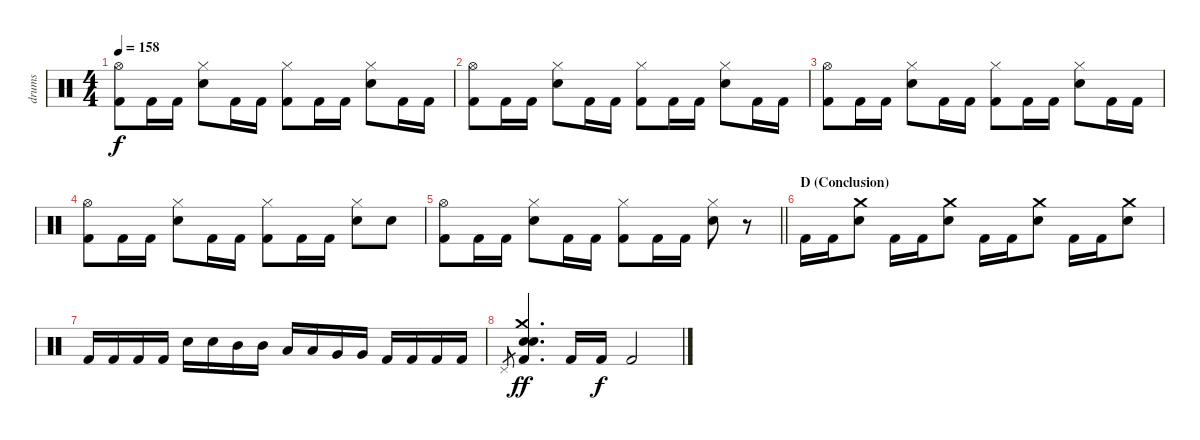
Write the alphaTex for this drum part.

\track ("drums" "drums") {instrument percussion}
\staff {score}
\articulation defaults
\ts (4 4)
\tempo 158
\clef neutral
\ks c
("Hi-Hat (open)" "Kick (hit) 2").8{dy f} "Kick (hit) 2".16 "Kick (hit) 2".16 ("Hi-Hat (closed)" "Electric Snare (hit)").8 "Kick (hit) 2".16 "Kick (hit) 2".16 ("Hi-Hat (closed)" "Kick (hit) 2").8 "Kick (hit) 2".16 "Kick (hit) 2".16 ("Hi-Hat (closed)" "Electric Snare (hit)").8 "Kick (hit) 2".16 "Kick (hit) 2".16 |
("Hi-Hat (open)" "Kick (hit) 2").8 "Kick (hit) 2".16 "Kick (hit) 2".16 ("Hi-Hat (closed)" "Electric Snare (hit)").8 "Kick (hit) 2".16 "Kick (hit) 2".16 ("Hi-Hat (closed)" "Kick (hit) 2").8 "Kick (hit) 2".16 "Kick (hit) 2".16 ("Hi-Hat (closed)" "Electric Snare (hit)").8 "Kick (hit) 2".16 "Kick (hit) 2".16 |
("Hi-Hat (open)" "Kick (hit) 2").8 "Kick (hit) 2".16 "Kick (hit) 2".16 ("Hi-Hat (closed)" "Electric Snare (hit)").8 "Kick (hit) 2".16 "Kick (hit) 2".16 ("Hi-Hat (closed)" "Kick (hit) 2").8 "Kick (hit) 2".16 "Kick (hit) 2".16 ("Hi-Hat (closed)" "Electric Snare (hit)").8 "Kick (hit) 2".16 "Kick (hit) 2".16 |
("Hi-Hat (open)" "Kick (hit) 2").8 "Kick (hit) 2".16 "Kick (hit) 2".16 ("Hi-Hat (closed)" "Electric Snare (hit)").8 "Kick (hit) 2".16 "Kick (hit) 2".16 ("Hi-Hat (closed)" "Kick (hit) 2").8 "Kick (hit) 2".16 "Kick (hit) 2".16 ("Hi-Hat (closed)" "Electric Snare (hit)").8 "Electric Snare (hit)".8 |
\barLineRight lightlight
("Hi-Hat (open)" "Kick (hit) 2").8 "Kick (hit) 2".16 "Kick (hit) 2".16 ("Hi-Hat (closed)" "Electric Snare (hit)").8 "Kick (hit) 2".16 "Kick (hit) 2".16 ("Hi-Hat (closed)" "Kick (hit) 2").8 "Kick (hit) 2".16 "Kick (hit) 2".16 ("Hi-Hat (closed)" "Electric Snare (hit)").8 r.8 |
\section ("" "D (Conclusion)")
"Kick (hit) 2".16 "Kick (hit) 2".16 ("Crash medium (hit)" "Electric Snare (hit)").8 "Kick (hit) 2".16 "Kick (hit) 2".16 ("Crash medium (hit)" "Electric Snare (hit)").8 "Kick (hit) 2".16 "Kick (hit) 2".16 ("Crash medium (hit)" "Electric Snare (hit)").8 "Kick (hit) 2".16 "Kick (hit) 2".16 ("Crash medium (hit)" "Electric Snare (hit)").8 |
"Kick (hit) 2".16 "Kick (hit) 2".16 "Kick (hit) 2".16 "Kick (hit) 2".16 "Electric Snare (hit)".16 "Electric Snare (hit)".16 "Mid Tom (hit)".16 "Mid Tom (hit)".16 "Low Tom (hit)".16 "Low Tom (hit)".16 "Very Low Tom (hit)".16 "Very Low Tom (hit)".16 "Kick (hit) 2".16 "Kick (hit) 2".16 "Kick (hit) 2".16 "Kick (hit) 2".16 |
"Pedal Hi-Hat (hit)".8{gr} ("Crash medium (hit)" "Snare (hit)" "Electric Snare (hit)" "Kick (hit) 2").4{d dy ff} "Kick (hit) 2".16 "Kick (hit) 2".16{dy f} "Kick (hit) 2".2
